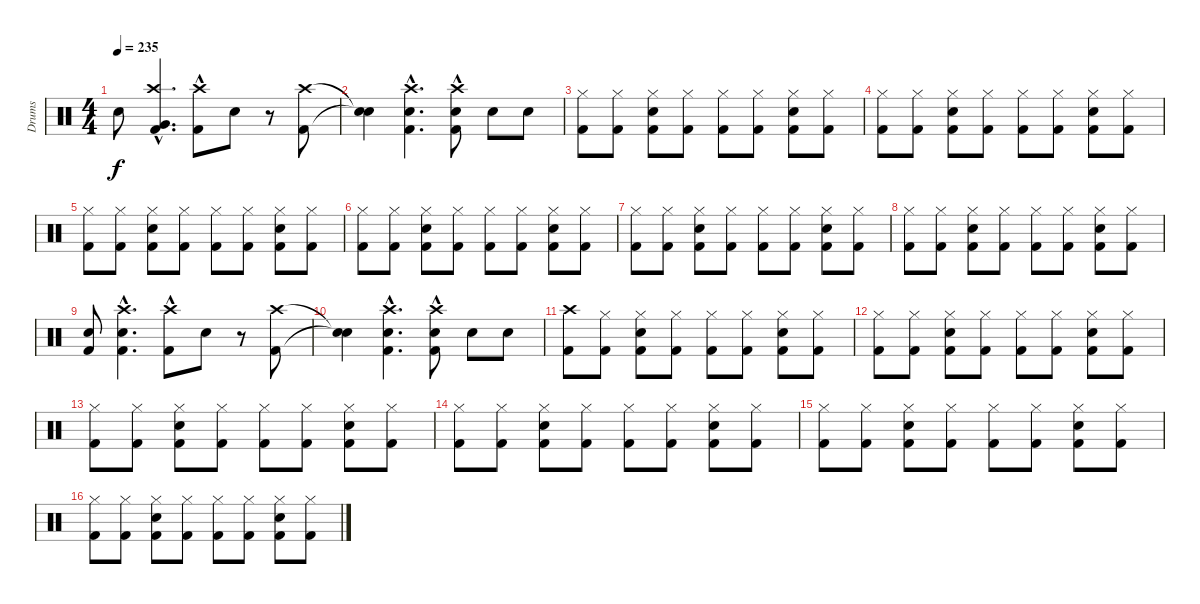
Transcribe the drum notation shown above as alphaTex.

\track ("Drums" "Drums") {instrument percussion}
\staff {score}
\articulation defaults
\ts (4 4)
\tempo 235
\clef neutral
\ks c "Snare (hit) 2".8{dy f}
("Kick (hit) 2"{hac} "Crash high (hit)"{hac} "Very Low Tom (hit)").4{d} ("Kick (hit) 2"{hac} "Crash high (hit)"{hac}).8 "Snare (hit) 2".8 r.8 ("Kick (hit) 2" "Crash high (hit)").8 |
("Snare (hit)"{t} "Snare (hit)"{t}).4 ("Kick (hit) 2"{hac} "Crash high (hit)"{hac} "Snare (hit) 2").4{d} ("Kick (hit) 2"{hac} "Crash high (hit)"{hac} "Snare (hit) 2").8 "Snare (hit) 2".8 "Snare (hit) 2".8 |
("Kick (hit) 2" "Hi-Hat (closed)").8 ("Kick (hit) 2" "Hi-Hat (closed)").8 ("Kick (hit) 2" "Snare (hit) 2" "Hi-Hat (closed)").8 ("Kick (hit) 2" "Hi-Hat (closed)").8 ("Kick (hit) 2" "Hi-Hat (closed)").8 ("Kick (hit) 2" "Hi-Hat (closed)").8 ("Kick (hit) 2" "Hi-Hat (closed)" "Snare (hit) 2").8 ("Kick (hit) 2" "Hi-Hat (closed)").8 |
("Kick (hit) 2" "Hi-Hat (closed)").8 ("Kick (hit) 2" "Hi-Hat (closed)").8 ("Kick (hit) 2" "Snare (hit) 2" "Hi-Hat (closed)").8 ("Kick (hit) 2" "Hi-Hat (closed)").8 ("Kick (hit) 2" "Hi-Hat (closed)").8 ("Kick (hit) 2" "Hi-Hat (closed)").8 ("Kick (hit) 2" "Hi-Hat (closed)" "Snare (hit) 2").8 ("Kick (hit) 2" "Hi-Hat (closed)").8 |
("Kick (hit) 2" "Hi-Hat (closed)").8 ("Kick (hit) 2" "Hi-Hat (closed)").8 ("Kick (hit) 2" "Snare (hit) 2" "Hi-Hat (closed)").8 ("Kick (hit) 2" "Hi-Hat (closed)").8 ("Kick (hit) 2" "Hi-Hat (closed)").8 ("Kick (hit) 2" "Hi-Hat (closed)").8 ("Kick (hit) 2" "Hi-Hat (closed)" "Snare (hit) 2").8 ("Kick (hit) 2" "Hi-Hat (closed)").8 |
("Kick (hit) 2" "Hi-Hat (closed)").8 ("Kick (hit) 2" "Hi-Hat (closed)").8 ("Kick (hit) 2" "Snare (hit) 2" "Hi-Hat (closed)").8 ("Kick (hit) 2" "Hi-Hat (closed)").8 ("Kick (hit) 2" "Hi-Hat (closed)").8 ("Kick (hit) 2" "Hi-Hat (closed)").8 ("Kick (hit) 2" "Hi-Hat (closed)" "Snare (hit) 2").8 ("Kick (hit) 2" "Hi-Hat (closed)").8 |
("Kick (hit) 2" "Hi-Hat (closed)").8 ("Kick (hit) 2" "Hi-Hat (closed)").8 ("Kick (hit) 2" "Snare (hit) 2" "Hi-Hat (closed)").8 ("Kick (hit) 2" "Hi-Hat (closed)").8 ("Kick (hit) 2" "Hi-Hat (closed)").8 ("Kick (hit) 2" "Hi-Hat (closed)").8 ("Kick (hit) 2" "Hi-Hat (closed)" "Snare (hit) 2").8 ("Kick (hit) 2" "Hi-Hat (closed)").8 |
("Kick (hit) 2" "Hi-Hat (closed)").8 ("Kick (hit) 2" "Hi-Hat (closed)").8 ("Kick (hit) 2" "Snare (hit) 2" "Hi-Hat (closed)").8 ("Kick (hit) 2" "Hi-Hat (closed)").8 ("Kick (hit) 2" "Hi-Hat (closed)").8 ("Kick (hit) 2" "Hi-Hat (closed)").8 ("Kick (hit) 2" "Hi-Hat (closed)" "Snare (hit) 2").8 ("Kick (hit) 2" "Hi-Hat (closed)").8 |
("Kick (hit) 2" "Snare (hit) 2").8 ("Kick (hit) 2"{hac} "Snare (hit) 2"{hac} "Crash high (hit)"{hac}).4{d} ("Crash high (hit)"{hac} "Kick (hit) 2"{hac}).8 "Snare (hit) 2".8 r.8 ("Kick (hit) 2" "Crash high (hit)").8 |
("Snare (hit)"{t} "Snare (hit)"{t}).4 ("Kick (hit) 2"{hac} "Crash high (hit)"{hac} "Snare (hit) 2").4{d} ("Kick (hit) 2"{hac} "Crash high (hit)"{hac} "Snare (hit) 2").8 "Snare (hit) 2".8 "Snare (hit) 2".8 |
("Kick (hit) 2" "Crash high (hit)").8 ("Kick (hit) 2" "Hi-Hat (closed)").8 ("Kick (hit) 2" "Snare (hit) 2" "Hi-Hat (closed)").8 ("Kick (hit) 2" "Hi-Hat (closed)").8 ("Kick (hit) 2" "Hi-Hat (closed)").8 ("Kick (hit) 2" "Hi-Hat (closed)").8 ("Kick (hit) 2" "Hi-Hat (closed)" "Snare (hit) 2").8 ("Kick (hit) 2" "Hi-Hat (closed)").8 |
("Kick (hit) 2" "Hi-Hat (closed)").8 ("Kick (hit) 2" "Hi-Hat (closed)").8 ("Kick (hit) 2" "Snare (hit) 2" "Hi-Hat (closed)").8 ("Kick (hit) 2" "Hi-Hat (closed)").8 ("Kick (hit) 2" "Hi-Hat (closed)").8 ("Kick (hit) 2" "Hi-Hat (closed)").8 ("Kick (hit) 2" "Hi-Hat (closed)" "Snare (hit) 2").8 ("Kick (hit) 2" "Hi-Hat (closed)").8 |
("Kick (hit) 2" "Hi-Hat (closed)").8 ("Kick (hit) 2" "Hi-Hat (closed)").8 ("Kick (hit) 2" "Snare (hit) 2" "Hi-Hat (closed)").8 ("Kick (hit) 2" "Hi-Hat (closed)").8 ("Kick (hit) 2" "Hi-Hat (closed)").8 ("Kick (hit) 2" "Hi-Hat (closed)").8 ("Kick (hit) 2" "Hi-Hat (closed)" "Snare (hit) 2").8 ("Kick (hit) 2" "Hi-Hat (closed)").8 |
("Kick (hit) 2" "Hi-Hat (closed)").8 ("Kick (hit) 2" "Hi-Hat (closed)").8 ("Kick (hit) 2" "Snare (hit) 2" "Hi-Hat (closed)").8 ("Kick (hit) 2" "Hi-Hat (closed)").8 ("Kick (hit) 2" "Hi-Hat (closed)").8 ("Kick (hit) 2" "Hi-Hat (closed)").8 ("Kick (hit) 2" "Hi-Hat (closed)" "Snare (hit) 2").8 ("Kick (hit) 2" "Hi-Hat (closed)").8 |
("Kick (hit) 2" "Hi-Hat (closed)").8 ("Kick (hit) 2" "Hi-Hat (closed)").8 ("Kick (hit) 2" "Snare (hit) 2" "Hi-Hat (closed)").8 ("Kick (hit) 2" "Hi-Hat (closed)").8 ("Kick (hit) 2" "Hi-Hat (closed)").8 ("Kick (hit) 2" "Hi-Hat (closed)").8 ("Kick (hit) 2" "Hi-Hat (closed)" "Snare (hit) 2").8 ("Kick (hit) 2" "Hi-Hat (closed)").8 |
("Kick (hit) 2" "Hi-Hat (closed)").8 ("Kick (hit) 2" "Hi-Hat (closed)").8 ("Kick (hit) 2" "Snare (hit) 2" "Hi-Hat (closed)").8 ("Kick (hit) 2" "Hi-Hat (closed)").8 ("Kick (hit) 2" "Hi-Hat (closed)").8 ("Kick (hit) 2" "Hi-Hat (closed)").8 ("Kick (hit) 2" "Hi-Hat (closed)" "Snare (hit) 2").8 ("Kick (hit) 2" "Hi-Hat (closed)").8
